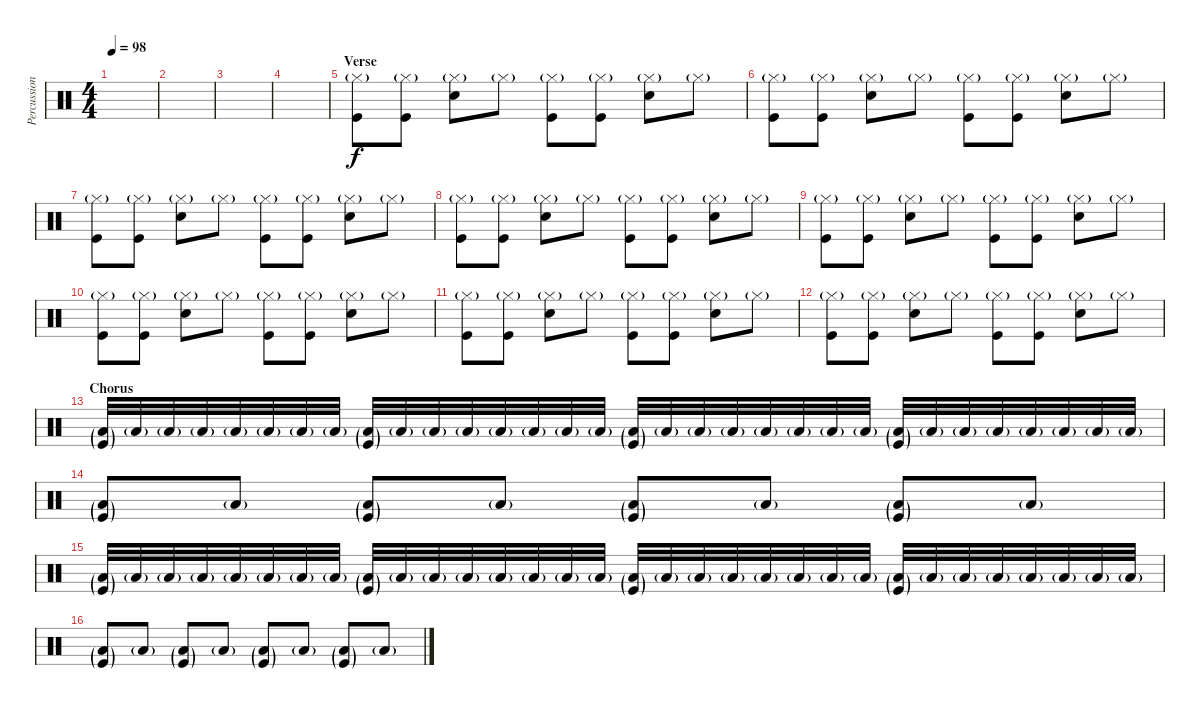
\track ("Percussions" "Percussion") {instrument percussion}
\staff {score}
\articulation defaults
\ts (4 4)
\tempo 98
\clef neutral
\ks c
|
|
|
|
\section ("" "Verse")
("Hi-Hat (closed)"{g} "Kick (hit)").8 ("Hi-Hat (closed)"{g} "Kick (hit)").8 ("Hi-Hat (closed)"{g} "Snare (hit) 2").8 "Hi-Hat (closed)"{g}.8 ("Hi-Hat (closed)"{g} "Kick (hit)").8 ("Hi-Hat (closed)"{g} "Kick (hit)").8 ("Hi-Hat (closed)"{g} "Snare (hit) 2").8 "Hi-Hat (closed)"{g}.8 |
("Hi-Hat (closed)"{g} "Kick (hit)").8 ("Hi-Hat (closed)"{g} "Kick (hit)").8 ("Hi-Hat (closed)"{g} "Snare (hit) 2").8 "Hi-Hat (closed)"{g}.8 ("Hi-Hat (closed)"{g} "Kick (hit)").8 ("Hi-Hat (closed)"{g} "Kick (hit)").8 ("Hi-Hat (closed)"{g} "Snare (hit) 2").8 "Hi-Hat (closed)"{g}.8 |
("Hi-Hat (closed)"{g} "Kick (hit)").8 ("Hi-Hat (closed)"{g} "Kick (hit)").8 ("Hi-Hat (closed)"{g} "Snare (hit) 2").8 "Hi-Hat (closed)"{g}.8 ("Hi-Hat (closed)"{g} "Kick (hit)").8 ("Hi-Hat (closed)"{g} "Kick (hit)").8 ("Hi-Hat (closed)"{g} "Snare (hit) 2").8 "Hi-Hat (closed)"{g}.8 |
("Hi-Hat (closed)"{g} "Kick (hit)").8 ("Hi-Hat (closed)"{g} "Kick (hit)").8 ("Hi-Hat (closed)"{g} "Snare (hit) 2").8 "Hi-Hat (closed)"{g}.8 ("Hi-Hat (closed)"{g} "Kick (hit)").8 ("Hi-Hat (closed)"{g} "Kick (hit)").8 ("Hi-Hat (closed)"{g} "Snare (hit) 2").8 "Hi-Hat (closed)"{g}.8 |
("Hi-Hat (closed)"{g} "Kick (hit)").8 ("Hi-Hat (closed)"{g} "Kick (hit)").8 ("Hi-Hat (closed)"{g} "Snare (hit) 2").8 "Hi-Hat (closed)"{g}.8 ("Hi-Hat (closed)"{g} "Kick (hit)").8 ("Hi-Hat (closed)"{g} "Kick (hit)").8 ("Hi-Hat (closed)"{g} "Snare (hit) 2").8 "Hi-Hat (closed)"{g}.8 |
("Hi-Hat (closed)"{g} "Kick (hit)").8 ("Hi-Hat (closed)"{g} "Kick (hit)").8 ("Hi-Hat (closed)"{g} "Snare (hit) 2").8 "Hi-Hat (closed)"{g}.8 ("Hi-Hat (closed)"{g} "Kick (hit)").8 ("Hi-Hat (closed)"{g} "Kick (hit)").8 ("Hi-Hat (closed)"{g} "Snare (hit) 2").8 "Hi-Hat (closed)"{g}.8 |
("Hi-Hat (closed)"{g} "Kick (hit)").8 ("Hi-Hat (closed)"{g} "Kick (hit)").8 ("Hi-Hat (closed)"{g} "Snare (hit) 2").8 "Hi-Hat (closed)"{g}.8 ("Hi-Hat (closed)"{g} "Kick (hit)").8 ("Hi-Hat (closed)"{g} "Kick (hit)").8 ("Hi-Hat (closed)"{g} "Snare (hit) 2").8 "Hi-Hat (closed)"{g}.8 |
("Hi-Hat (closed)"{g} "Kick (hit)").8 ("Hi-Hat (closed)"{g} "Kick (hit)").8 ("Hi-Hat (closed)"{g} "Snare (hit) 2").8 "Hi-Hat (closed)"{g}.8 ("Hi-Hat (closed)"{g} "Kick (hit)").8 ("Hi-Hat (closed)"{g} "Kick (hit)").8 ("Hi-Hat (closed)"{g} "Snare (hit) 2").8 "Hi-Hat (closed)"{g}.8 |
\section ("" "Chorus")
("Low Floor Tom (hit)"{g} "Kick (hit)"{g}).32{volume 9} "Low Floor Tom (hit)"{g}.32 "Low Floor Tom (hit)"{g}.32 "Low Floor Tom (hit)"{g}.32 "Low Floor Tom (hit)"{g}.32 "Low Floor Tom (hit)"{g}.32 "Low Floor Tom (hit)"{g}.32 "Low Floor Tom (hit)"{g}.32 ("Low Floor Tom (hit)"{g} "Kick (hit)"{g}).32 "Low Floor Tom (hit)"{g}.32 "Low Floor Tom (hit)"{g}.32 "Low Floor Tom (hit)"{g}.32 "Low Floor Tom (hit)"{g}.32 "Low Floor Tom (hit)"{g}.32 "Low Floor Tom (hit)"{g}.32 "Low Floor Tom (hit)"{g}.32 ("Low Floor Tom (hit)"{g} "Kick (hit)"{g}).32 "Low Floor Tom (hit)"{g}.32 "Low Floor Tom (hit)"{g}.32 "Low Floor Tom (hit)"{g}.32 "Low Floor Tom (hit)"{g}.32 "Low Floor Tom (hit)"{g}.32 "Low Floor Tom (hit)"{g}.32 "Low Floor Tom (hit)"{g}.32 ("Low Floor Tom (hit)"{g} "Kick (hit)"{g}).32 "Low Floor Tom (hit)"{g}.32 "Low Floor Tom (hit)"{g}.32 "Low Floor Tom (hit)"{g}.32 "Low Floor Tom (hit)"{g}.32 "Low Floor Tom (hit)"{g}.32 "Low Floor Tom (hit)"{g}.32 "Low Floor Tom (hit)"{g}.32 |
("Low Floor Tom (hit)"{g} "Kick (hit)"{g}).8 "Low Floor Tom (hit)"{g}.8 ("Low Floor Tom (hit)"{g} "Kick (hit)"{g}).8 "Low Floor Tom (hit)"{g}.8 ("Low Floor Tom (hit)"{g} "Kick (hit)"{g}).8 "Low Floor Tom (hit)"{g}.8 ("Low Floor Tom (hit)"{g} "Kick (hit)"{g}).8 "Low Floor Tom (hit)"{g}.8 |
("Low Floor Tom (hit)"{g} "Kick (hit)"{g}).32 "Low Floor Tom (hit)"{g}.32 "Low Floor Tom (hit)"{g}.32 "Low Floor Tom (hit)"{g}.32 "Low Floor Tom (hit)"{g}.32 "Low Floor Tom (hit)"{g}.32 "Low Floor Tom (hit)"{g}.32 "Low Floor Tom (hit)"{g}.32 ("Low Floor Tom (hit)"{g} "Kick (hit)"{g}).32 "Low Floor Tom (hit)"{g}.32 "Low Floor Tom (hit)"{g}.32 "Low Floor Tom (hit)"{g}.32 "Low Floor Tom (hit)"{g}.32 "Low Floor Tom (hit)"{g}.32 "Low Floor Tom (hit)"{g}.32 "Low Floor Tom (hit)"{g}.32 ("Low Floor Tom (hit)"{g} "Kick (hit)"{g}).32 "Low Floor Tom (hit)"{g}.32 "Low Floor Tom (hit)"{g}.32 "Low Floor Tom (hit)"{g}.32 "Low Floor Tom (hit)"{g}.32 "Low Floor Tom (hit)"{g}.32 "Low Floor Tom (hit)"{g}.32 "Low Floor Tom (hit)"{g}.32 ("Low Floor Tom (hit)"{g} "Kick (hit)"{g}).32 "Low Floor Tom (hit)"{g}.32 "Low Floor Tom (hit)"{g}.32 "Low Floor Tom (hit)"{g}.32 "Low Floor Tom (hit)"{g}.32 "Low Floor Tom (hit)"{g}.32 "Low Floor Tom (hit)"{g}.32 "Low Floor Tom (hit)"{g}.32 |
("Low Floor Tom (hit)"{g} "Kick (hit)"{g}).8 "Low Floor Tom (hit)"{g}.8 ("Low Floor Tom (hit)"{g} "Kick (hit)"{g}).8 "Low Floor Tom (hit)"{g}.8 ("Low Floor Tom (hit)"{g} "Kick (hit)"{g}).8 "Low Floor Tom (hit)"{g}.8 ("Low Floor Tom (hit)"{g} "Kick (hit)"{g}).8 "Low Floor Tom (hit)"{g}.8
